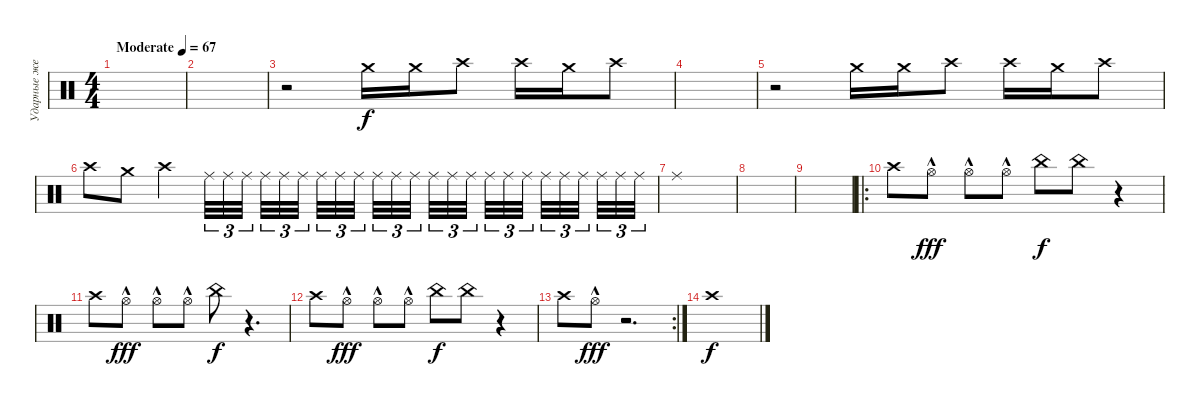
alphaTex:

\track ("Ударные железо" "Ударные же") {instrument percussion}
\staff {score}
\articulation defaults
\ts (4 4)
\tempo (67 "Moderate")
\clef neutral
\ks c
|
|
r.2 "Crash medium (hit)".16 "Crash medium (hit)".16 "Crash high (hit)".8 "Crash high (hit)".16 "Crash medium (hit)".16 "Crash high (hit)".8 |
|
r.2 "Crash medium (hit)".16 "Crash medium (hit)".16 "Crash high (hit)".8 "Crash high (hit)".16 "Crash medium (hit)".16 "Crash high (hit)".8 |
"Crash high (hit)".8 "Crash medium (hit)".8 "Crash high (hit)".4 "Ride (middle)".32{tu (3 2) volume 2} "Ride (middle)".32{tu (3 2) volume 16} "Ride (middle)".32{tu (3 2) beam splitsecondary} "Ride (middle)".32{tu (3 2)} "Ride (middle)".32{tu (3 2)} "Ride (middle)".32{tu (3 2) beam splitsecondary} "Ride (middle)".32{tu (3 2)} "Ride (middle)".32{tu (3 2)} "Ride (middle)".32{tu (3 2) beam splitsecondary} "Ride (middle)".32{tu (3 2)} "Ride (middle)".32{tu (3 2)} "Ride (middle)".32{tu (3 2)} "Ride (middle)".32{tu (3 2)} "Ride (middle)".32{tu (3 2)} "Ride (middle)".32{tu (3 2) beam splitsecondary} "Ride (middle)".32{tu (3 2)} "Ride (middle)".32{tu (3 2)} "Ride (middle)".32{tu (3 2) beam splitsecondary} "Ride (middle)".32{tu (3 2)} "Ride (middle)".32{tu (3 2)} "Ride (middle)".32{tu (3 2) beam splitsecondary} "Ride (middle)".32{tu (3 2)} "Ride (middle)".32{tu (3 2)} "Ride (middle)".32{tu (3 2)} |
"Ride (middle)".1 |
|
|
\ro "Crash high (hit)".8 "Hi-Hat (open)"{hac}.8{dy fff} "Hi-Hat (open)"{hac}.8 "Hi-Hat (open)"{hac}.8 "China (hit)".8{dy f} "China (hit)".8
r.4 |
"Crash high (hit)".8 "Hi-Hat (open)"{hac}.8{dy fff} "Hi-Hat (open)"{hac}.8 "Hi-Hat (open)"{hac}.8 "China (hit)".8{dy f} r.4{d} |
"Crash high (hit)".8 "Hi-Hat (open)"{hac}.8{dy fff} "Hi-Hat (open)"{hac}.8 "Hi-Hat (open)"{hac}.8 "China (hit)".8{dy f} "China (hit)".8 r.4 |
\rc 2 "Crash high (hit)".8 "Hi-Hat (open)"{hac}.8{dy fff}
r.2{d} |
"Crash high (hit)".1{dy f}
